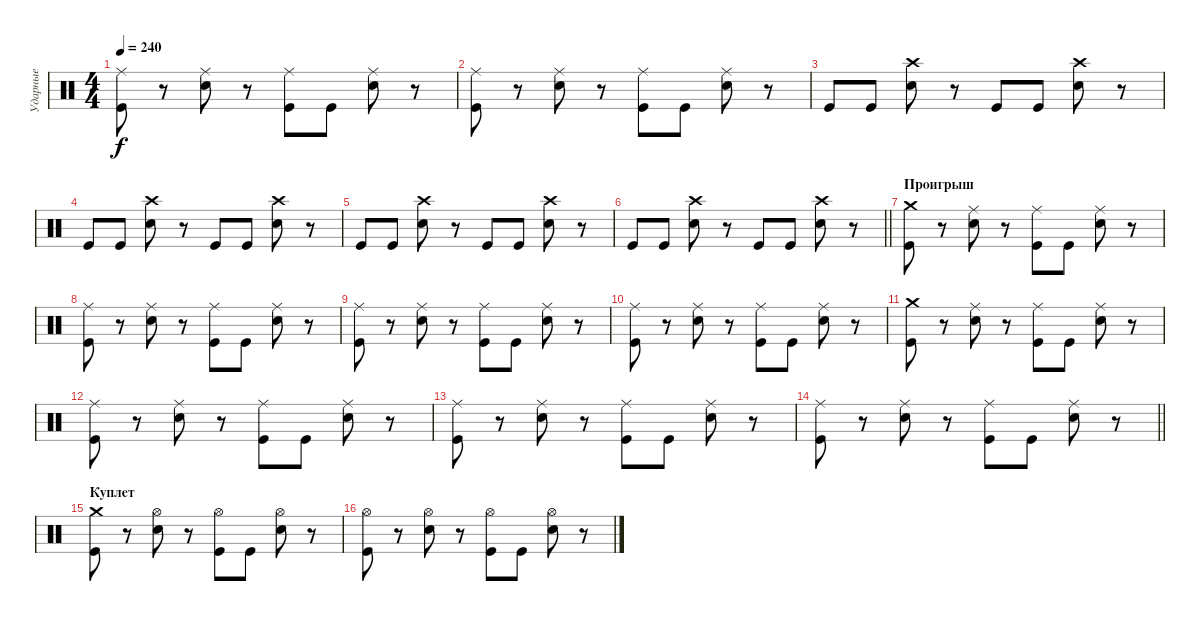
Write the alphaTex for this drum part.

\track ("Ударные" "Ударные") {instrument percussion}
\staff {score}
\articulation defaults
\ts (4 4)
\tempo 240
\clef neutral
\ks c
("Ride (middle)" "Kick (hit)").8{dy f} r.8 ("Ride (middle)" "Electric Snare (hit)").8 r.8 ("Ride (middle)" "Kick (hit)").8 "Kick (hit)".8 ("Ride (middle)" "Electric Snare (hit)").8 r.8 |
("Ride (middle)" "Kick (hit)").8 r.8 ("Ride (middle)" "Electric Snare (hit)").8 r.8 ("Ride (middle)" "Kick (hit)").8 "Kick (hit)".8 ("Ride (middle)" "Electric Snare (hit)").8 r.8 |
"Kick (hit)".8 "Kick (hit)".8 ("Crash high (hit)" "Electric Snare (hit)").8 r.8 "Kick (hit)".8 "Kick (hit)".8 ("Crash high (hit)" "Electric Snare (hit)").8 r.8 |
"Kick (hit)".8 "Kick (hit)".8 ("Crash high (hit)" "Electric Snare (hit)").8 r.8 "Kick (hit)".8 "Kick (hit)".8 ("Crash high (hit)" "Electric Snare (hit)").8 r.8 |
"Kick (hit)".8 "Kick (hit)".8 ("Crash high (hit)" "Electric Snare (hit)").8 r.8 "Kick (hit)".8 "Kick (hit)".8 ("Crash high (hit)" "Electric Snare (hit)").8 r.8 |
\barLineRight lightlight "Kick (hit)".8 "Kick (hit)".8
("Crash high (hit)" "Electric Snare (hit)").8 r.8 "Kick (hit)".8 "Kick (hit)".8 ("Crash high (hit)" "Electric Snare (hit)").8 r.8 |
\section ("" "Проигрыш")
("Crash medium (hit)" "Kick (hit)").8 r.8 ("Ride (middle)" "Electric Snare (hit)").8 r.8 ("Ride (middle)" "Kick (hit)").8 "Kick (hit)".8 ("Ride (middle)" "Electric Snare (hit)").8 r.8 |
("Ride (middle)" "Kick (hit)").8 r.8 ("Ride (middle)" "Electric Snare (hit)").8 r.8 ("Ride (middle)" "Kick (hit)").8 "Kick (hit)".8 ("Ride (middle)" "Electric Snare (hit)").8 r.8 |
("Ride (middle)" "Kick (hit)").8 r.8 ("Ride (middle)" "Electric Snare (hit)").8 r.8 ("Ride (middle)" "Kick (hit)").8 "Kick (hit)".8 ("Ride (middle)" "Electric Snare (hit)").8 r.8 |
("Ride (middle)" "Kick (hit)").8 r.8 ("Ride (middle)" "Electric Snare (hit)").8 r.8 ("Ride (middle)" "Kick (hit)").8 "Kick (hit)".8 ("Ride (middle)" "Electric Snare (hit)").8 r.8 |
("Crash medium (hit)" "Kick (hit)").8 r.8 ("Ride (middle)" "Electric Snare (hit)").8 r.8 ("Ride (middle)" "Kick (hit)").8 "Kick (hit)".8 ("Ride (middle)" "Electric Snare (hit)").8 r.8 |
("Ride (middle)" "Kick (hit)").8 r.8 ("Ride (middle)" "Electric Snare (hit)").8 r.8 ("Ride (middle)" "Kick (hit)").8 "Kick (hit)".8 ("Ride (middle)" "Electric Snare (hit)").8 r.8 |
("Ride (middle)" "Kick (hit)").8 r.8 ("Ride (middle)" "Electric Snare (hit)").8 r.8 ("Ride (middle)" "Kick (hit)").8 "Kick (hit)".8 ("Ride (middle)" "Electric Snare (hit)").8 r.8 |
\barLineRight lightlight
("Ride (middle)" "Kick (hit)").8 r.8 ("Ride (middle)" "Electric Snare (hit)").8 r.8 ("Ride (middle)" "Kick (hit)").8 "Kick (hit)".8 ("Ride (middle)" "Electric Snare (hit)").8 r.8 |
\section ("" "Куплет")
("Crash medium (hit)" "Kick (hit)").8 r.8 ("Hi-Hat (open)" "Electric Snare (hit)").8 r.8 ("Hi-Hat (open)" "Kick (hit)").8 "Kick (hit)".8 ("Hi-Hat (open)" "Electric Snare (hit)").8 r.8 |
("Hi-Hat (open)" "Kick (hit)").8 r.8 ("Hi-Hat (open)" "Electric Snare (hit)").8 r.8 ("Hi-Hat (open)" "Kick (hit)").8 "Kick (hit)".8 ("Hi-Hat (open)" "Electric Snare (hit)").8 r.8
